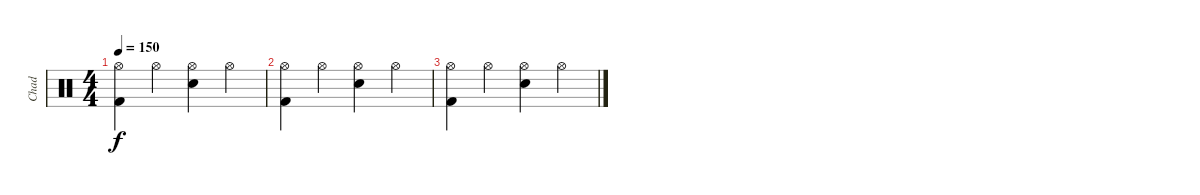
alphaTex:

\track ("Chad" "Chad") {instrument percussion}
\staff {score}
\articulation defaults
\ts (4 4)
\tempo 150
\clef neutral
\ks c
("Hi-Hat (open)" "Kick (hit) 2").4{dy f} "Hi-Hat (open)".4 ("Hi-Hat (open)" "Snare (hit) 2").4 "Hi-Hat (open)".4 |
("Hi-Hat (open)" "Kick (hit) 2").4 "Hi-Hat (open)".4 ("Hi-Hat (open)" "Snare (hit) 2").4 "Hi-Hat (open)".4 |
("Hi-Hat (open)" "Kick (hit) 2").4 "Hi-Hat (open)".4 ("Hi-Hat (open)" "Snare (hit) 2").4 "Hi-Hat (open)".4
